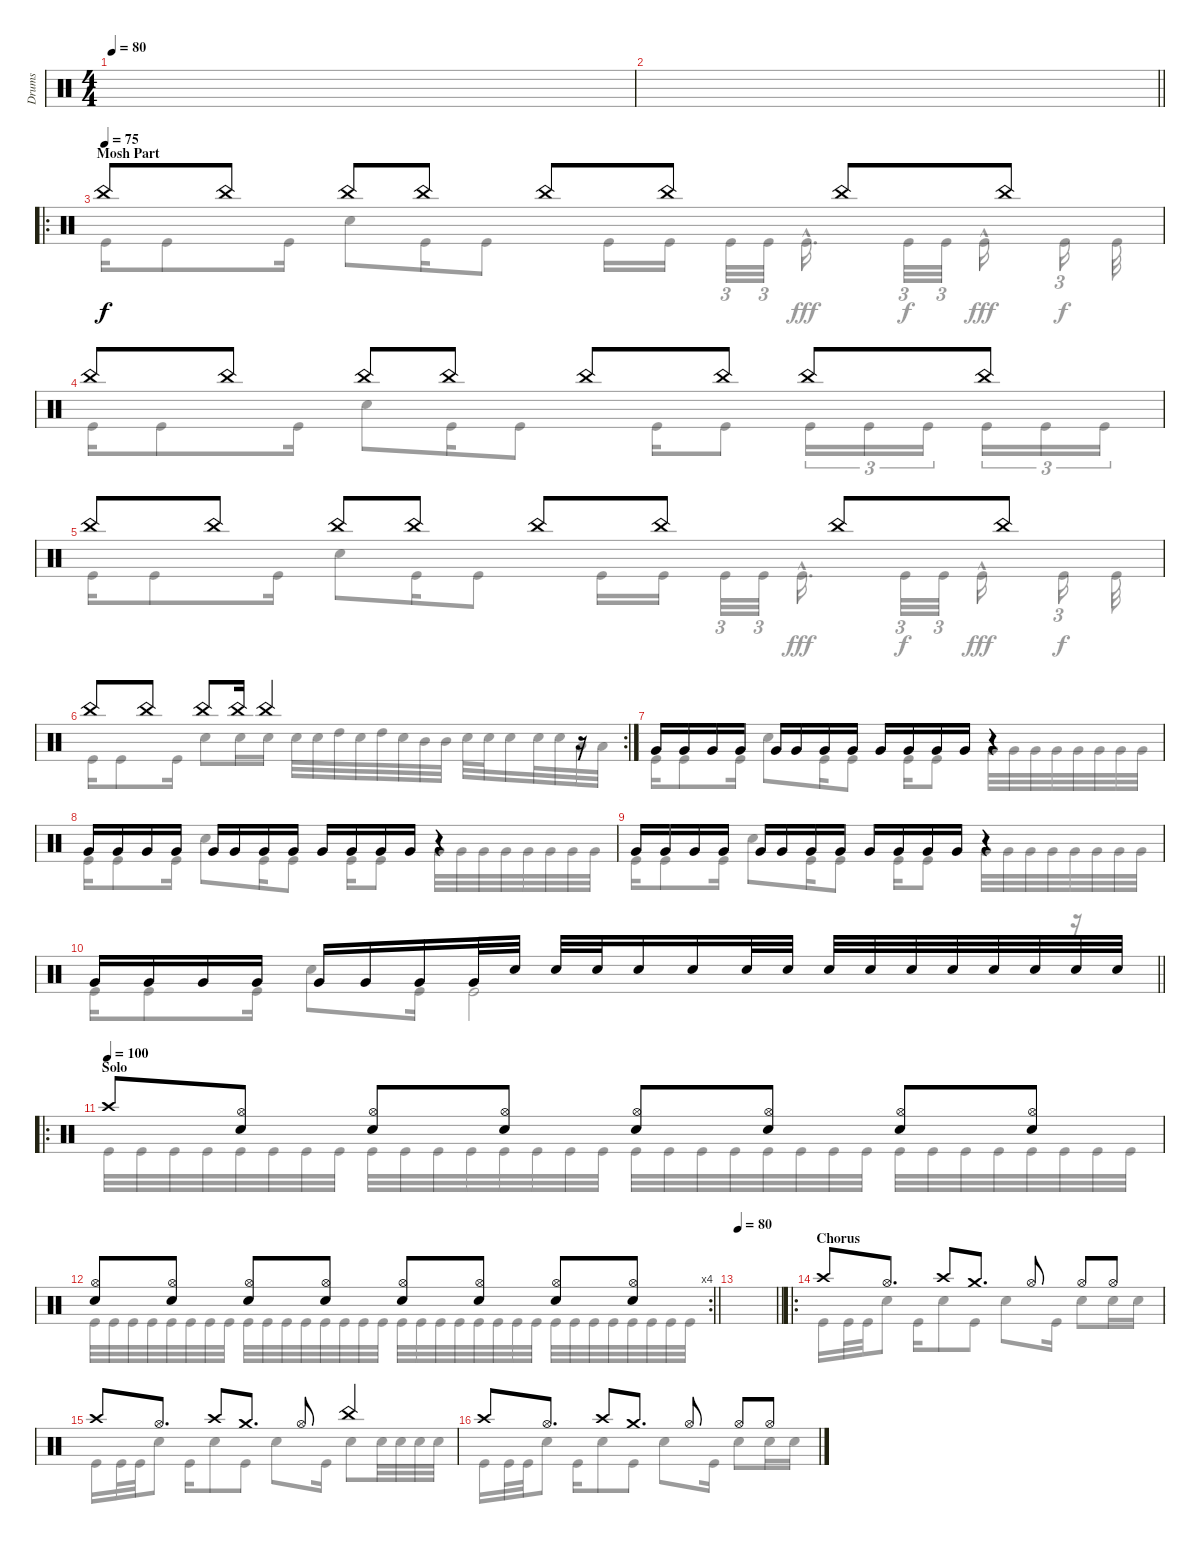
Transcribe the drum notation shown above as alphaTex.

\track ("Drums" "Drums") {instrument percussion}
\staff {score}
\articulation defaults
\voice
\ts (4 4)
\tempo 80
\clef neutral
\ks c
|
\barLineRight lightlight
|
\ro
\section ("" "Mosh Part")
\tempo (75)
"China (hit)".8 "China (hit)".8 "China (hit)".8 "China (hit)".8 "China (hit)".8 "China (hit)".8 "China (hit)".8 "China (hit)".8 |
"China (hit)".8 "China (hit)".8 "China (hit)".8 "China (hit)".8 "China (hit)".8 "China (hit)".8 "China (hit)".8 "China (hit)".8 |
"China (hit)".8 "China (hit)".8 "China (hit)".8 "China (hit)".8 "China (hit)".8 "China (hit)".8 "China (hit)".8 "China (hit)".8 |
\rc 2 "China (hit)".8 "China (hit)".8 "China (hit)".8 "China (hit)".16 "China (hit)".2
r.16 |
"Very Low Tom (hit)".16 "Very Low Tom (hit)".16 "Very Low Tom (hit)".16 "Very Low Tom (hit)".16 "Very Low Tom (hit)".16 "Very Low Tom (hit)".16 "Very Low Tom (hit)".16 "Very Low Tom (hit)".16 "Very Low Tom (hit)".16 "Very Low Tom (hit)".16 "Very Low Tom (hit)".16 "Very Low Tom (hit)".16 r.4 |
"Very Low Tom (hit)".16 "Very Low Tom (hit)".16 "Very Low Tom (hit)".16 "Very Low Tom (hit)".16 "Very Low Tom (hit)".16 "Very Low Tom (hit)".16 "Very Low Tom (hit)".16 "Very Low Tom (hit)".16 "Very Low Tom (hit)".16 "Very Low Tom (hit)".16 "Very Low Tom (hit)".16 "Very Low Tom (hit)".16 r.4 |
"Very Low Tom (hit)".16 "Very Low Tom (hit)".16 "Very Low Tom (hit)".16 "Very Low Tom (hit)".16 "Very Low Tom (hit)".16 "Very Low Tom (hit)".16 "Very Low Tom (hit)".16 "Very Low Tom (hit)".16 "Very Low Tom (hit)".16 "Very Low Tom (hit)".16 "Very Low Tom (hit)".16 "Very Low Tom (hit)".16 r.4 |
\barLineRight lightlight "Very Low Tom (hit)".16 "Very Low Tom (hit)".16 "Very Low Tom (hit)".16 "Very Low Tom (hit)".16 "Very Low Tom (hit)".16 "Very Low Tom (hit)".16 "Very Low Tom (hit)".16 "Very Low Tom (hit)".32 "Snare (hit) 2".32 "Snare (hit) 2".32 "Snare (hit) 2".32 "Snare (hit) 2".16 "Snare (hit) 2".16 "Snare (hit) 2".32 "Snare (hit) 2".32 "Snare (hit) 2".32 "Snare (hit) 2".32 "Snare (hit) 2".32 "Snare (hit) 2".32 "Snare (hit) 2".32 "Snare (hit) 2".32 "Snare (hit) 2".32 "Snare (hit) 2".32
|
\ro
\section ("" "Solo")
\tempo (100)
"Crash high (hit)".8 ("Snare (hit) 2" "Hi-Hat (open)").8 ("Snare (hit) 2" "Hi-Hat (open)").8 ("Snare (hit) 2" "Hi-Hat (open)").8 ("Snare (hit) 2" "Hi-Hat (open)").8 ("Snare (hit) 2" "Hi-Hat (open)").8 ("Snare (hit) 2" "Hi-Hat (open)").8 ("Snare (hit) 2" "Hi-Hat (open)").8 |
\rc 4
\barLineRight lightlight
("Snare (hit) 2" "Hi-Hat (open)").8 ("Snare (hit) 2" "Hi-Hat (open)").8 ("Snare (hit) 2" "Hi-Hat (open)").8 ("Snare (hit) 2" "Hi-Hat (open)").8 ("Snare (hit) 2" "Hi-Hat (open)").8 ("Snare (hit) 2" "Hi-Hat (open)").8 ("Snare (hit) 2" "Hi-Hat (open)").8 ("Snare (hit) 2" "Hi-Hat (open)").8 |
\tempo 80
\barLineRight lightlight
|
\ro
\section ("" "Chorus")
"Crash high (hit)".8 "Hi-Hat (open)".8{d} "Crash high (hit)".8 "Crash medium (hit)".8{d} "Hi-Hat (open)".8 "Hi-Hat (open)".8 "Hi-Hat (open)".8 |
"Crash high (hit)".8 "Hi-Hat (open)".8{d} "Crash high (hit)".8 "Crash medium (hit)".8{d} "Hi-Hat (open)".8 "China (hit)".4 |
"Crash high (hit)".8 "Hi-Hat (open)".8{d} "Crash high (hit)".8 "Crash medium (hit)".8{d} "Hi-Hat (open)".8 "Hi-Hat (open)".8 "Hi-Hat (open)".8
\voice
\clef neutral
\ottava regular
\simile none
\ks c
|
\barLineRight lightlight
|
"Kick (hit)".16 "Kick (hit)".8 "Kick (hit)".16 "Snare (hit) 2".8 "Kick (hit)".16 "Kick (hit)".8 "Kick (hit)".16 "Kick (hit)".16{beam splitsecondary} "Kick (hit)".32{tu (3 2)} "Kick (hit)".32{tu (3 2) beam splitsecondary} "Kick (hit)"{hac}.16{d dy fff} "Kick (hit)".32{tu (3 2) dy f} "Kick (hit)".32{tu (3 2) beam splitsecondary} "Kick (hit)"{hac}.16{dy fff beam splitsecondary} "Kick (hit)".16{tu (3 2) dy f} "Kick (hit)".32 |
"Kick (hit)".16 "Kick (hit)".8 "Kick (hit)".16 "Snare (hit) 2".8 "Kick (hit)".16 "Kick (hit)".8 "Kick (hit)".16 "Kick (hit)".8 "Kick (hit)".16{tu (3 2)} "Kick (hit)".16{tu (3 2)} "Kick (hit)".16{tu (3 2) beam splitsecondary} "Kick (hit)".16{tu (3 2)} "Kick (hit)".16{tu (3 2)} "Kick (hit)".16{tu (3 2)} |
"Kick (hit)".16 "Kick (hit)".8 "Kick (hit)".16 "Snare (hit) 2".8 "Kick (hit)".16 "Kick (hit)".8 "Kick (hit)".16 "Kick (hit)".16{beam splitsecondary} "Kick (hit)".32{tu (3 2)} "Kick (hit)".32{tu (3 2) beam splitsecondary} "Kick (hit)"{hac}.16{d dy fff} "Kick (hit)".32{tu (3 2) dy f} "Kick (hit)".32{tu (3 2) beam splitsecondary} "Kick (hit)"{hac}.16{dy fff beam splitsecondary} "Kick (hit)".16{tu (3 2) dy f} "Kick (hit)".32 |
"Kick (hit)".16 "Kick (hit)".8 "Kick (hit)".16 "Snare (hit) 2".8 "Snare (hit) 2".16 "Snare (hit) 2".16 "Snare (hit) 2".32 "Snare (hit) 2".32 "High Tom (hit)".32 "Snare (hit) 2".32 "High Tom (hit)".32 "Snare (hit) 2".32 "Mid Tom (hit)".32 "Mid Tom (hit)".32 "Snare (hit) 2".32 "Snare (hit) 2".32 "Snare (hit) 2".16 "Snare (hit) 2".32 "Snare (hit) 2".32 "Low Tom (hit)".32 "Low Tom (hit)".32 |
"Kick (hit)".16 "Kick (hit)".8 "Kick (hit)".16 "Snare (hit) 2".8 "Kick (hit)".16 "Kick (hit)".8 "Kick (hit)".16 "Kick (hit)".8 "Very Low Tom (hit)".32 "Very Low Tom (hit)".32 "Very Low Tom (hit)".32 "Very Low Tom (hit)".32 "Very Low Tom (hit)".32 "Very Low Tom (hit)".32 "Very Low Tom (hit)".32 "Very Low Tom (hit)".32 |
"Kick (hit)".16 "Kick (hit)".8 "Kick (hit)".16 "Snare (hit) 2".8 "Kick (hit)".16 "Kick (hit)".8 "Kick (hit)".16 "Kick (hit)".8 "Very Low Tom (hit)".32 "Very Low Tom (hit)".32 "Very Low Tom (hit)".32 "Very Low Tom (hit)".32 "Very Low Tom (hit)".32 "Very Low Tom (hit)".32 "Very Low Tom (hit)".32 "Very Low Tom (hit)".32 |
"Kick (hit)".16 "Kick (hit)".8 "Kick (hit)".16 "Snare (hit) 2".8 "Kick (hit)".16 "Kick (hit)".8 "Kick (hit)".16 "Kick (hit)".8 "Very Low Tom (hit)".32 "Very Low Tom (hit)".32 "Very Low Tom (hit)".32 "Very Low Tom (hit)".32 "Very Low Tom (hit)".32 "Very Low Tom (hit)".32 "Very Low Tom (hit)".32 "Very Low Tom (hit)".32 |
\barLineRight lightlight "Kick (hit)".16 "Kick (hit)".8 "Kick (hit)".16 "Snare (hit) 2".8 "Kick (hit)".16 "Kick (hit)".2
r.16 |
"Kick (hit)".32 "Kick (hit)".32 "Kick (hit)".32 "Kick (hit)".32 "Kick (hit)".32 "Kick (hit)".32 "Kick (hit)".32 "Kick (hit)".32 "Kick (hit)".32 "Kick (hit)".32 "Kick (hit)".32 "Kick (hit)".32 "Kick (hit)".32 "Kick (hit)".32 "Kick (hit)".32 "Kick (hit)".32 "Kick (hit)".32 "Kick (hit)".32 "Kick (hit)".32 "Kick (hit)".32 "Kick (hit)".32 "Kick (hit)".32 "Kick (hit)".32 "Kick (hit)".32 "Kick (hit)".32 "Kick (hit)".32 "Kick (hit)".32 "Kick (hit)".32 "Kick (hit)".32 "Kick (hit)".32 "Kick (hit)".32 "Kick (hit)".32 |
\barLineRight lightlight "Kick (hit)".32 "Kick (hit)".32 "Kick (hit)".32 "Kick (hit)".32 "Kick (hit)".32 "Kick (hit)".32 "Kick (hit)".32 "Kick (hit)".32 "Kick (hit)".32 "Kick (hit)".32 "Kick (hit)".32 "Kick (hit)".32 "Kick (hit)".32 "Kick (hit)".32 "Kick (hit)".32 "Kick (hit)".32 "Kick (hit)".32 "Kick (hit)".32 "Kick (hit)".32 "Kick (hit)".32 "Kick (hit)".32 "Kick (hit)".32 "Kick (hit)".32 "Kick (hit)".32 "Kick (hit)".32 "Kick (hit)".32 "Kick (hit)".32 "Kick (hit)".32 "Kick (hit)".32 "Kick (hit)".32 "Kick (hit)".32 "Kick (hit)".32
|
\barLineRight lightlight
|
"Kick (hit)".16 "Kick (hit)".32 "Kick (hit)".32 "Snare (hit) 2".8 "Kick (hit)".16 "Snare (hit) 2".8 "Kick (hit)".8 "Snare (hit) 2".8 "Kick (hit)".16 "Snare (hit) 2".8 "Snare (hit) 2".16 "Snare (hit) 2".16 |
"Kick (hit)".16 "Kick (hit)".32 "Kick (hit)".32 "Snare (hit) 2".8 "Kick (hit)".16 "Snare (hit) 2".8 "Kick (hit)".8 "Snare (hit) 2".8 "Kick (hit)".16 "Snare (hit) 2".8 "Snare (hit) 2".32 "Snare (hit) 2".32 "Snare (hit) 2".32 "Snare (hit) 2".32 |
"Kick (hit)".16 "Kick (hit)".32 "Kick (hit)".32 "Snare (hit) 2".8 "Kick (hit)".16 "Snare (hit) 2".8 "Kick (hit)".8 "Snare (hit) 2".8 "Kick (hit)".16 "Snare (hit) 2".8 "Snare (hit) 2".16 "Snare (hit) 2".16
